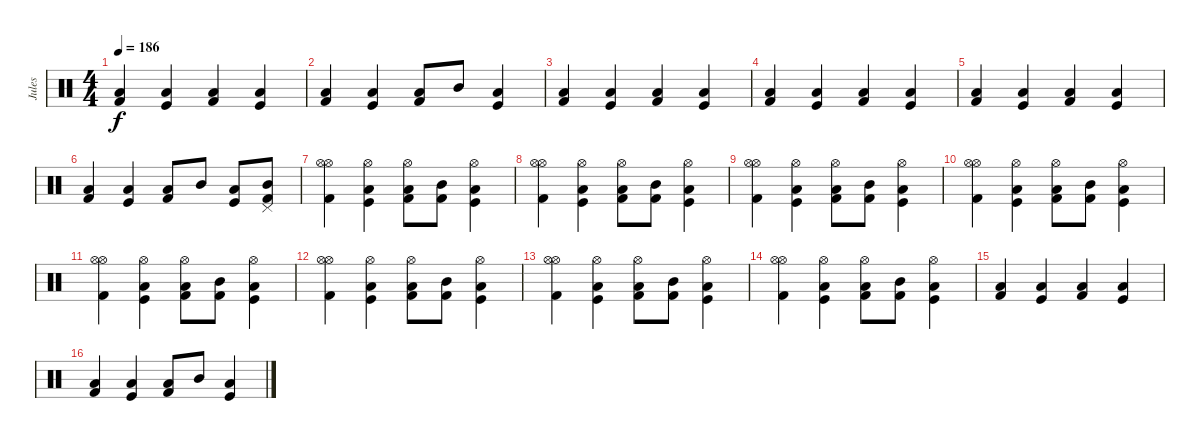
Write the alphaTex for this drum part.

\track ("Jules" "Jules") {instrument percussion}
\staff {score}
\articulation defaults
\ts (4 4)
\tempo 186
\clef neutral
\ks c
("Kick (hit) 2" "Low Floor Tom (hit)").4{dy f} ("Kick (hit)" "Low Floor Tom (hit)").4 ("Kick (hit) 2" "Low Floor Tom (hit)").4 ("Kick (hit)" "Low Floor Tom (hit)").4 |
("Kick (hit) 2" "Low Floor Tom (hit)").4 ("Kick (hit)" "Low Floor Tom (hit)").4 ("Kick (hit) 2" "Low Floor Tom (hit)").8 "Mid Tom (hit)".8 ("Kick (hit)" "Low Floor Tom (hit)").4 |
("Kick (hit) 2" "Low Floor Tom (hit)").4 ("Kick (hit)" "Low Floor Tom (hit)").4 ("Kick (hit) 2" "Low Floor Tom (hit)").4 ("Kick (hit)" "Low Floor Tom (hit)").4 |
("Kick (hit) 2" "Low Floor Tom (hit)").4 ("Kick (hit)" "Low Floor Tom (hit)").4 ("Kick (hit) 2" "Low Floor Tom (hit)").4 ("Kick (hit)" "Low Floor Tom (hit)").4 |
("Kick (hit) 2" "Low Floor Tom (hit)").4 ("Kick (hit)" "Low Floor Tom (hit)").4 ("Kick (hit) 2" "Low Floor Tom (hit)").4 ("Kick (hit)" "Low Floor Tom (hit)").4 |
("Kick (hit) 2" "Low Floor Tom (hit)").4 ("Kick (hit)" "Low Floor Tom (hit)").4 ("Kick (hit) 2" "Low Floor Tom (hit)").8 "Mid Tom (hit)".8 ("Kick (hit)" "Low Floor Tom (hit)").8 ("Mid Tom (hit)" "Kick (hit) 2" "Pedal Hi-Hat (hit)").8 |
("Kick (hit) 2" "Hi-Hat (open)" "Hi-Hat (open)").4 ("Kick (hit)" "Low Floor Tom (hit)" "Hi-Hat (open)").4 ("Kick (hit) 2" "Hi-Hat (open)" "Low Floor Tom (hit)").8 ("Mid Tom (hit)" "Kick (hit) 2").8 ("Kick (hit)" "Low Floor Tom (hit)" "Hi-Hat (open)").4 |
("Kick (hit) 2" "Hi-Hat (open)" "Hi-Hat (open)").4 ("Kick (hit)" "Low Floor Tom (hit)" "Hi-Hat (open)").4 ("Kick (hit) 2" "Hi-Hat (open)" "Low Floor Tom (hit)").8 ("Mid Tom (hit)" "Kick (hit) 2").8 ("Kick (hit)" "Low Floor Tom (hit)" "Hi-Hat (open)").4 |
("Kick (hit) 2" "Hi-Hat (open)" "Hi-Hat (open)").4 ("Kick (hit)" "Low Floor Tom (hit)" "Hi-Hat (open)").4 ("Kick (hit) 2" "Hi-Hat (open)" "Low Floor Tom (hit)").8 ("Mid Tom (hit)" "Kick (hit) 2").8 ("Kick (hit)" "Low Floor Tom (hit)" "Hi-Hat (open)").4 |
("Kick (hit) 2" "Hi-Hat (open)" "Hi-Hat (open)").4 ("Kick (hit)" "Low Floor Tom (hit)" "Hi-Hat (open)").4 ("Kick (hit) 2" "Hi-Hat (open)" "Low Floor Tom (hit)").8 ("Mid Tom (hit)" "Kick (hit) 2").8 ("Kick (hit)" "Low Floor Tom (hit)" "Hi-Hat (open)").4 |
("Kick (hit) 2" "Hi-Hat (open)" "Hi-Hat (open)").4 ("Kick (hit)" "Low Floor Tom (hit)" "Hi-Hat (open)").4 ("Kick (hit) 2" "Hi-Hat (open)" "Low Floor Tom (hit)").8 ("Mid Tom (hit)" "Kick (hit) 2").8 ("Kick (hit)" "Low Floor Tom (hit)" "Hi-Hat (open)").4 |
("Kick (hit) 2" "Hi-Hat (open)" "Hi-Hat (open)").4 ("Kick (hit)" "Low Floor Tom (hit)" "Hi-Hat (open)").4 ("Kick (hit) 2" "Hi-Hat (open)" "Low Floor Tom (hit)").8 ("Mid Tom (hit)" "Kick (hit) 2").8 ("Kick (hit)" "Low Floor Tom (hit)" "Hi-Hat (open)").4 |
("Kick (hit) 2" "Hi-Hat (open)" "Hi-Hat (open)").4 ("Kick (hit)" "Low Floor Tom (hit)" "Hi-Hat (open)").4 ("Kick (hit) 2" "Hi-Hat (open)" "Low Floor Tom (hit)").8 ("Mid Tom (hit)" "Kick (hit) 2").8 ("Kick (hit)" "Low Floor Tom (hit)" "Hi-Hat (open)").4 |
("Kick (hit) 2" "Hi-Hat (open)" "Hi-Hat (open)").4 ("Kick (hit)" "Low Floor Tom (hit)" "Hi-Hat (open)").4 ("Kick (hit) 2" "Hi-Hat (open)" "Low Floor Tom (hit)").8 ("Mid Tom (hit)" "Kick (hit) 2").8 ("Kick (hit)" "Low Floor Tom (hit)" "Hi-Hat (open)").4 |
("Kick (hit) 2" "Low Floor Tom (hit)").4 ("Kick (hit)" "Low Floor Tom (hit)").4 ("Kick (hit) 2" "Low Floor Tom (hit)").4 ("Kick (hit)" "Low Floor Tom (hit)").4 |
("Kick (hit) 2" "Low Floor Tom (hit)").4 ("Kick (hit)" "Low Floor Tom (hit)").4 ("Kick (hit) 2" "Low Floor Tom (hit)").8 "Mid Tom (hit)".8 ("Kick (hit)" "Low Floor Tom (hit)").4
